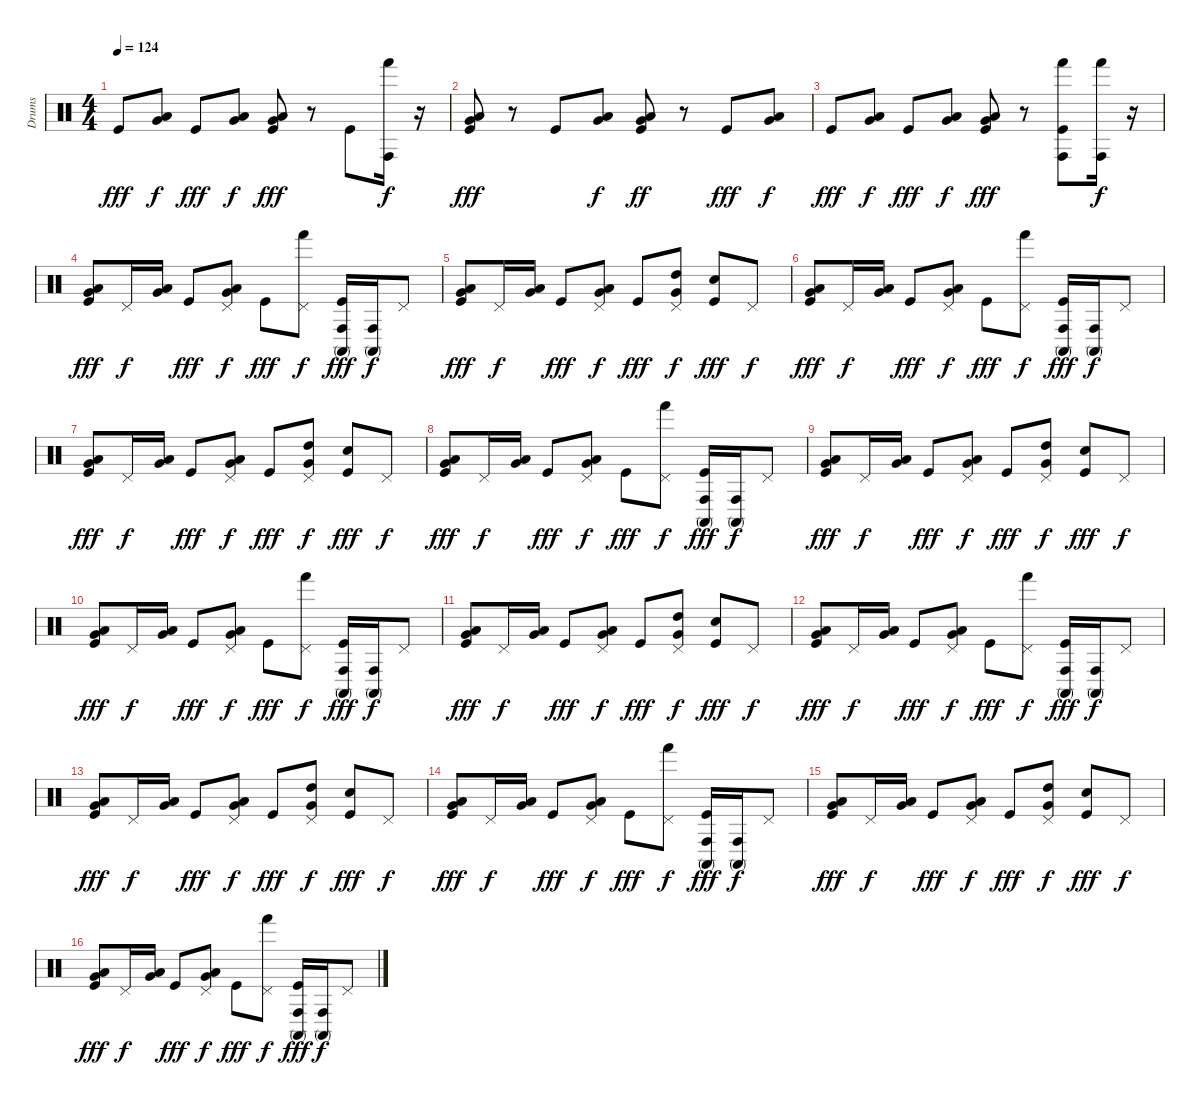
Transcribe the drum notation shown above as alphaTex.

\track ("Drums" "Drums") {instrument percussion}
\staff {score}
\articulation defaults
\ts (4 4)
\tempo 124
\clef neutral
\ks c "Kick (hit)".8{dy fff}
("Very Low Tom (hit)" "Low Tom (hit)").8{dy f} "Kick (hit)".8{dy fff} ("Very Low Tom (hit)" "Low Tom (hit)").8{dy f} ("Kick (hit)" "Very Low Tom (hit)" "Low Tom (hit)").8{dy fff} r.8 "Kick (hit)".8 ("Conga high (hit)" "Hand (hit)").16{dy f} r.16 |
("Kick (hit)" "Very Low Tom (hit)" "Low Tom (hit)").8{dy fff} r.8 "Kick (hit)".8 ("Very Low Tom (hit)" "Low Tom (hit)").8{dy f} ("Kick (hit)" "Very Low Tom (hit)" "Low Tom (hit)").8{dy ff} r.8 "Kick (hit)".8{dy fff} ("Very Low Tom (hit)" "Low Tom (hit)").8{dy f} |
"Kick (hit)".8{dy fff} ("Very Low Tom (hit)" "Low Tom (hit)").8{dy f} "Kick (hit)".8{dy fff} ("Very Low Tom (hit)" "Low Tom (hit)").8{dy f} ("Kick (hit)" "Very Low Tom (hit)" "Low Tom (hit)").8{dy fff} r.8 ("Kick (hit)" "Hand (hit)" "Conga high (hit)").8 ("Conga high (hit)" "Hand (hit)").16{dy f} r.16 |
("Kick (hit)" "Very Low Tom (hit)" "Low Tom (hit)").8{dy fff} "Pedal Hi-Hat (hit)".16{dy f} ("Very Low Tom (hit)" "Low Tom (hit)").16 "Kick (hit)".8{dy fff} ("Pedal Hi-Hat (hit)" "Very Low Tom (hit)" "Low Tom (hit)").8{dy f} "Kick (hit)".8{dy fff} ("Pedal Hi-Hat (hit)" "Hand (hit)").8{dy f} ("Kick (hit)" "Conga high (mute)" "Conga high (hit)").16{dy fff} ("Conga high (mute)" "Conga high (hit)").16{dy f} "Pedal Hi-Hat (hit)".8 |
("Kick (hit)" "Very Low Tom (hit)" "Low Tom (hit)").8{dy fff} "Pedal Hi-Hat (hit)".16{dy f} ("Very Low Tom (hit)" "Low Tom (hit)").16 "Kick (hit)".8{dy fff} ("Pedal Hi-Hat (hit)" "Very Low Tom (hit)" "Low Tom (hit)").8{dy f} "Kick (hit)".8{dy fff} ("Pedal Hi-Hat (hit)" "High Tom (hit)" "Very Low Tom (hit)").8{dy f} ("Kick (hit)" "Electric Snare (hit)").8{dy fff} "Pedal Hi-Hat (hit)".8{dy f} |
("Kick (hit)" "Very Low Tom (hit)" "Low Tom (hit)").8{dy fff} "Pedal Hi-Hat (hit)".16{dy f} ("Very Low Tom (hit)" "Low Tom (hit)").16 "Kick (hit)".8{dy fff} ("Pedal Hi-Hat (hit)" "Very Low Tom (hit)" "Low Tom (hit)").8{dy f} "Kick (hit)".8{dy fff} ("Pedal Hi-Hat (hit)" "Hand (hit)").8{dy f} ("Kick (hit)" "Conga high (hit)" "Conga high (mute)").16{dy fff} ("Conga high (mute)" "Conga high (hit)").16{dy f} "Pedal Hi-Hat (hit)".8 |
("Kick (hit)" "Very Low Tom (hit)" "Low Tom (hit)").8{dy fff} "Pedal Hi-Hat (hit)".16{dy f} ("Very Low Tom (hit)" "Low Tom (hit)").16 "Kick (hit)".8{dy fff} ("Pedal Hi-Hat (hit)" "Very Low Tom (hit)" "Low Tom (hit)").8{dy f} "Kick (hit)".8{dy fff} ("Pedal Hi-Hat (hit)" "High Tom (hit)" "Very Low Tom (hit)").8{dy f} ("Kick (hit)" "Electric Snare (hit)").8{dy fff} "Pedal Hi-Hat (hit)".8{dy f} |
("Kick (hit)" "Very Low Tom (hit)" "Low Tom (hit)").8{dy fff} "Pedal Hi-Hat (hit)".16{dy f} ("Very Low Tom (hit)" "Low Tom (hit)").16 "Kick (hit)".8{dy fff} ("Pedal Hi-Hat (hit)" "Very Low Tom (hit)" "Low Tom (hit)").8{dy f} "Kick (hit)".8{dy fff} ("Pedal Hi-Hat (hit)" "Hand (hit)").8{dy f} ("Kick (hit)" "Conga high (mute)" "Conga high (hit)").16{dy fff} ("Conga high (mute)" "Conga high (hit)").16{dy f} "Pedal Hi-Hat (hit)".8 |
("Kick (hit)" "Very Low Tom (hit)" "Low Tom (hit)").8{dy fff} "Pedal Hi-Hat (hit)".16{dy f} ("Very Low Tom (hit)" "Low Tom (hit)").16 "Kick (hit)".8{dy fff} ("Pedal Hi-Hat (hit)" "Very Low Tom (hit)" "Low Tom (hit)").8{dy f} "Kick (hit)".8{dy fff} ("Pedal Hi-Hat (hit)" "High Tom (hit)" "Very Low Tom (hit)").8{dy f} ("Kick (hit)" "Electric Snare (hit)").8{dy fff} "Pedal Hi-Hat (hit)".8{dy f} |
("Kick (hit)" "Very Low Tom (hit)" "Low Tom (hit)").8{dy fff} "Pedal Hi-Hat (hit)".16{dy f} ("Very Low Tom (hit)" "Low Tom (hit)").16 "Kick (hit)".8{dy fff} ("Pedal Hi-Hat (hit)" "Very Low Tom (hit)" "Low Tom (hit)").8{dy f} "Kick (hit)".8{dy fff} ("Pedal Hi-Hat (hit)" "Hand (hit)").8{dy f} ("Kick (hit)" "Conga high (mute)" "Conga high (hit)").16{dy fff} ("Conga high (mute)" "Conga high (hit)").16{dy f} "Pedal Hi-Hat (hit)".8 |
("Kick (hit)" "Very Low Tom (hit)" "Low Tom (hit)").8{dy fff} "Pedal Hi-Hat (hit)".16{dy f} ("Very Low Tom (hit)" "Low Tom (hit)").16 "Kick (hit)".8{dy fff} ("Pedal Hi-Hat (hit)" "Very Low Tom (hit)" "Low Tom (hit)").8{dy f} "Kick (hit)".8{dy fff} ("Pedal Hi-Hat (hit)" "High Tom (hit)" "Very Low Tom (hit)").8{dy f} ("Kick (hit)" "Electric Snare (hit)").8{dy fff} "Pedal Hi-Hat (hit)".8{dy f} |
("Kick (hit)" "Very Low Tom (hit)" "Low Tom (hit)").8{dy fff} "Pedal Hi-Hat (hit)".16{dy f} ("Very Low Tom (hit)" "Low Tom (hit)").16 "Kick (hit)".8{dy fff} ("Pedal Hi-Hat (hit)" "Very Low Tom (hit)" "Low Tom (hit)").8{dy f} "Kick (hit)".8{dy fff} ("Pedal Hi-Hat (hit)" "Hand (hit)").8{dy f} ("Kick (hit)" "Conga high (mute)" "Conga high (hit)").16{dy fff} ("Conga high (mute)" "Conga high (hit)").16{dy f} "Pedal Hi-Hat (hit)".8 |
("Kick (hit)" "Very Low Tom (hit)" "Low Tom (hit)").8{dy fff} "Pedal Hi-Hat (hit)".16{dy f} ("Very Low Tom (hit)" "Low Tom (hit)").16 "Kick (hit)".8{dy fff} ("Pedal Hi-Hat (hit)" "Very Low Tom (hit)" "Low Tom (hit)").8{dy f} "Kick (hit)".8{dy fff} ("Pedal Hi-Hat (hit)" "High Tom (hit)" "Very Low Tom (hit)").8{dy f} ("Kick (hit)" "Electric Snare (hit)").8{dy fff} "Pedal Hi-Hat (hit)".8{dy f} |
("Kick (hit)" "Very Low Tom (hit)" "Low Tom (hit)").8{dy fff} "Pedal Hi-Hat (hit)".16{dy f} ("Very Low Tom (hit)" "Low Tom (hit)").16 "Kick (hit)".8{dy fff} ("Pedal Hi-Hat (hit)" "Very Low Tom (hit)" "Low Tom (hit)").8{dy f} "Kick (hit)".8{dy fff} ("Pedal Hi-Hat (hit)" "Hand (hit)").8{dy f} ("Kick (hit)" "Conga high (mute)" "Conga high (hit)").16{dy fff} ("Conga high (mute)" "Conga high (hit)").16{dy f} "Pedal Hi-Hat (hit)".8 |
("Kick (hit)" "Very Low Tom (hit)" "Low Tom (hit)").8{dy fff} "Pedal Hi-Hat (hit)".16{dy f} ("Very Low Tom (hit)" "Low Tom (hit)").16 "Kick (hit)".8{dy fff} ("Pedal Hi-Hat (hit)" "Very Low Tom (hit)" "Low Tom (hit)").8{dy f} "Kick (hit)".8{dy fff} ("Pedal Hi-Hat (hit)" "High Tom (hit)" "Very Low Tom (hit)").8{dy f} ("Kick (hit)" "Electric Snare (hit)").8{dy fff} "Pedal Hi-Hat (hit)".8{dy f} |
("Kick (hit)" "Very Low Tom (hit)" "Low Tom (hit)").8{dy fff} "Pedal Hi-Hat (hit)".16{dy f} ("Very Low Tom (hit)" "Low Tom (hit)").16 "Kick (hit)".8{dy fff} ("Pedal Hi-Hat (hit)" "Very Low Tom (hit)" "Low Tom (hit)").8{dy f} "Kick (hit)".8{dy fff} ("Pedal Hi-Hat (hit)" "Hand (hit)").8{dy f} ("Kick (hit)" "Conga high (mute)" "Conga high (hit)").16{dy fff} ("Conga high (mute)" "Conga high (hit)").16{dy f} "Pedal Hi-Hat (hit)".8
